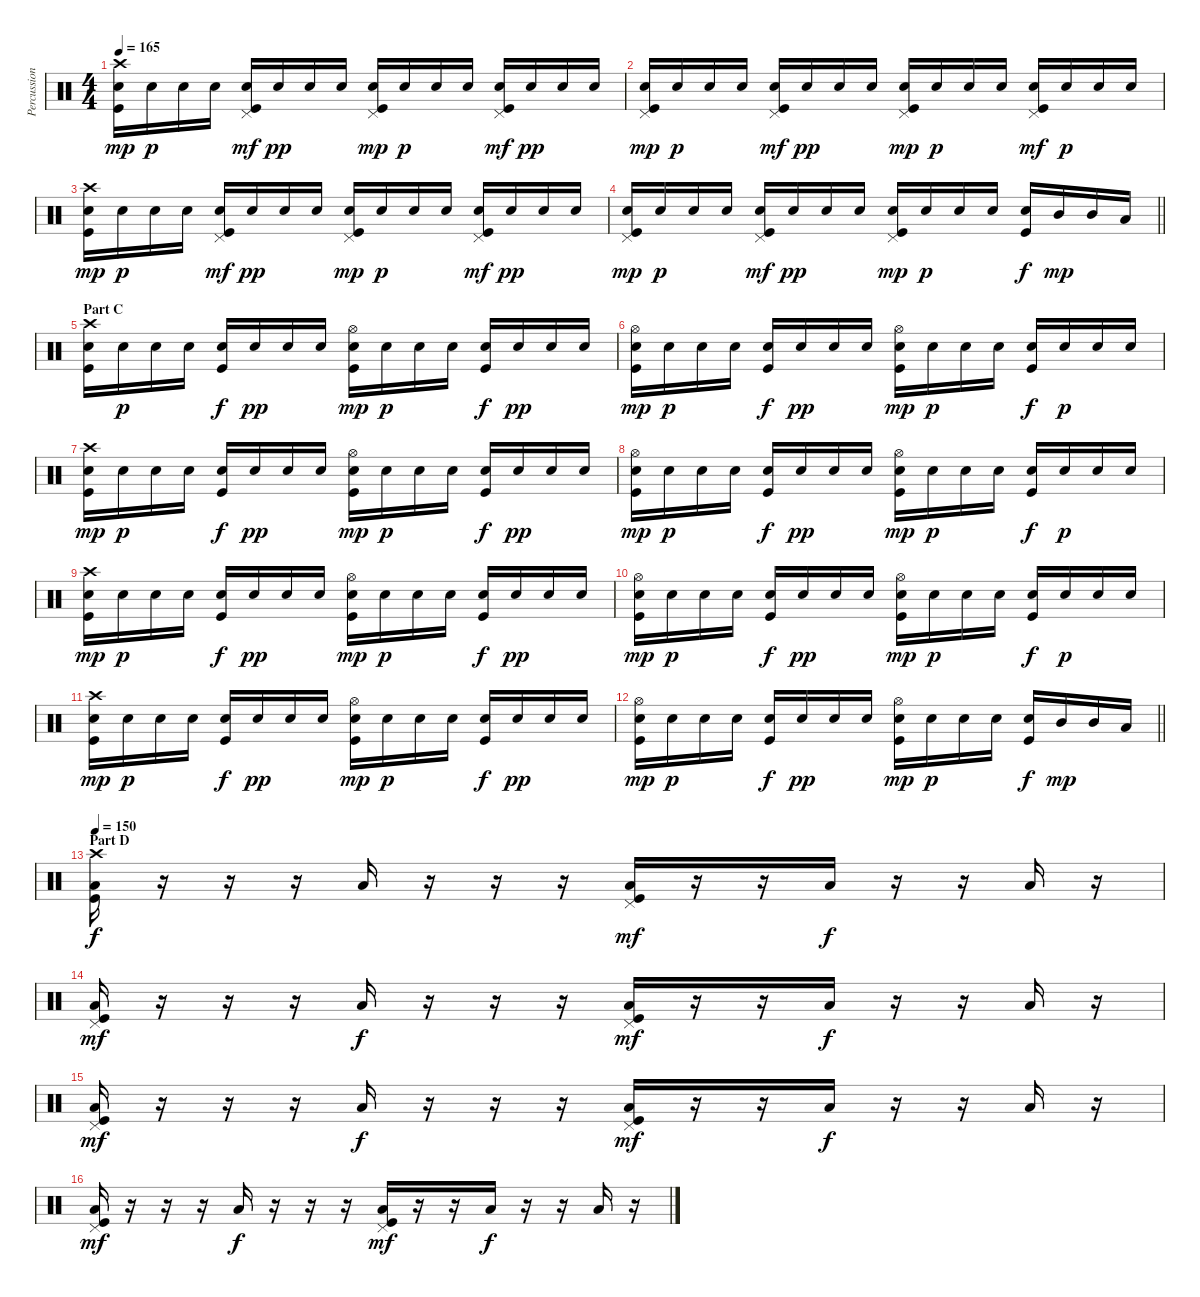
\track ("Percussion" "Percussion") {instrument percussion}
\staff {score}
\articulation defaults
\ts (4 4)
\tempo 165
\clef neutral
\ks c
("Crash high (hit)" "Electric Snare (hit)" "Kick (hit)").16{dy mp} "Electric Snare (hit)".16{dy p} "Electric Snare (hit)".16 "Electric Snare (hit)".16 ("Pedal Hi-Hat (hit)" "Electric Snare (hit)" "Kick (hit)").16{dy mf} "Electric Snare (hit)".16{dy pp} "Electric Snare (hit)".16 "Electric Snare (hit)".16 ("Pedal Hi-Hat (hit)" "Electric Snare (hit)" "Kick (hit)").16{dy mp} "Electric Snare (hit)".16{dy p} "Electric Snare (hit)".16 "Electric Snare (hit)".16 ("Pedal Hi-Hat (hit)" "Electric Snare (hit)" "Kick (hit)").16{dy mf} "Electric Snare (hit)".16{dy pp} "Electric Snare (hit)".16 "Electric Snare (hit)".16 |
("Pedal Hi-Hat (hit)" "Electric Snare (hit)" "Kick (hit)").16{dy mp} "Electric Snare (hit)".16{dy p} "Electric Snare (hit)".16 "Electric Snare (hit)".16 ("Pedal Hi-Hat (hit)" "Electric Snare (hit)" "Kick (hit)").16{dy mf} "Electric Snare (hit)".16{dy pp} "Electric Snare (hit)".16 "Electric Snare (hit)".16 ("Pedal Hi-Hat (hit)" "Electric Snare (hit)" "Kick (hit)").16{dy mp} "Electric Snare (hit)".16{dy p} "Electric Snare (hit)".16 "Electric Snare (hit)".16 ("Pedal Hi-Hat (hit)" "Electric Snare (hit)" "Kick (hit)").16{dy mf} "Electric Snare (hit)".16{dy p} "Electric Snare (hit)".16 "Electric Snare (hit)".16 |
("Crash high (hit)" "Electric Snare (hit)" "Kick (hit)").16{dy mp} "Electric Snare (hit)".16{dy p} "Electric Snare (hit)".16 "Electric Snare (hit)".16 ("Pedal Hi-Hat (hit)" "Electric Snare (hit)" "Kick (hit)").16{dy mf} "Electric Snare (hit)".16{dy pp} "Electric Snare (hit)".16 "Electric Snare (hit)".16 ("Pedal Hi-Hat (hit)" "Electric Snare (hit)" "Kick (hit)").16{dy mp} "Electric Snare (hit)".16{dy p} "Electric Snare (hit)".16 "Electric Snare (hit)".16 ("Pedal Hi-Hat (hit)" "Electric Snare (hit)" "Kick (hit)").16{dy mf} "Electric Snare (hit)".16{dy pp} "Electric Snare (hit)".16 "Electric Snare (hit)".16 |
\barLineRight lightlight
("Pedal Hi-Hat (hit)" "Electric Snare (hit)" "Kick (hit)").16{dy mp} "Electric Snare (hit)".16{dy p} "Electric Snare (hit)".16 "Electric Snare (hit)".16 ("Pedal Hi-Hat (hit)" "Electric Snare (hit)" "Kick (hit)").16{dy mf} "Electric Snare (hit)".16{dy pp} "Electric Snare (hit)".16 "Electric Snare (hit)".16 ("Pedal Hi-Hat (hit)" "Electric Snare (hit)" "Kick (hit)").16{dy mp} "Electric Snare (hit)".16{dy p} "Electric Snare (hit)".16 "Electric Snare (hit)".16 ("Electric Snare (hit)" "Kick (hit)").16{dy f} "Mid Tom (hit)".16{dy mp} "Mid Tom (hit)".16 "Low Tom (hit)".16 |
\section ("" "Part C")
("Crash high (hit)" "Electric Snare (hit)" "Kick (hit)").16 "Electric Snare (hit)".16{dy p} "Electric Snare (hit)".16 "Electric Snare (hit)".16 ("Electric Snare (hit)" "Kick (hit)").16{dy f} "Electric Snare (hit)".16{dy pp} "Electric Snare (hit)".16 "Electric Snare (hit)".16 ("Hi-Hat (open)" "Electric Snare (hit)" "Kick (hit)").16{dy mp} "Electric Snare (hit)".16{dy p} "Electric Snare (hit)".16 "Electric Snare (hit)".16 ("Electric Snare (hit)" "Kick (hit)").16{dy f} "Electric Snare (hit)".16{dy pp} "Electric Snare (hit)".16 "Electric Snare (hit)".16 |
("Hi-Hat (open)" "Electric Snare (hit)" "Kick (hit)").16{dy mp} "Electric Snare (hit)".16{dy p} "Electric Snare (hit)".16 "Electric Snare (hit)".16 ("Electric Snare (hit)" "Kick (hit)").16{dy f} "Electric Snare (hit)".16{dy pp} "Electric Snare (hit)".16 "Electric Snare (hit)".16 ("Hi-Hat (open)" "Electric Snare (hit)" "Kick (hit)").16{dy mp} "Electric Snare (hit)".16{dy p} "Electric Snare (hit)".16 "Electric Snare (hit)".16 ("Electric Snare (hit)" "Kick (hit)").16{dy f} "Electric Snare (hit)".16{dy p} "Electric Snare (hit)".16 "Electric Snare (hit)".16 |
("Crash high (hit)" "Electric Snare (hit)" "Kick (hit)").16{dy mp} "Electric Snare (hit)".16{dy p} "Electric Snare (hit)".16 "Electric Snare (hit)".16 ("Electric Snare (hit)" "Kick (hit)").16{dy f} "Electric Snare (hit)".16{dy pp} "Electric Snare (hit)".16 "Electric Snare (hit)".16 ("Hi-Hat (open)" "Electric Snare (hit)" "Kick (hit)").16{dy mp} "Electric Snare (hit)".16{dy p} "Electric Snare (hit)".16 "Electric Snare (hit)".16 ("Electric Snare (hit)" "Kick (hit)").16{dy f} "Electric Snare (hit)".16{dy pp} "Electric Snare (hit)".16 "Electric Snare (hit)".16 |
("Hi-Hat (open)" "Electric Snare (hit)" "Kick (hit)").16{dy mp} "Electric Snare (hit)".16{dy p} "Electric Snare (hit)".16 "Electric Snare (hit)".16 ("Electric Snare (hit)" "Kick (hit)").16{dy f} "Electric Snare (hit)".16{dy pp} "Electric Snare (hit)".16 "Electric Snare (hit)".16 ("Hi-Hat (open)" "Electric Snare (hit)" "Kick (hit)").16{dy mp} "Electric Snare (hit)".16{dy p} "Electric Snare (hit)".16 "Electric Snare (hit)".16 ("Electric Snare (hit)" "Kick (hit)").16{dy f} "Electric Snare (hit)".16{dy p} "Electric Snare (hit)".16 "Electric Snare (hit)".16 |
("Crash high (hit)" "Electric Snare (hit)" "Kick (hit)").16{dy mp} "Electric Snare (hit)".16{dy p} "Electric Snare (hit)".16 "Electric Snare (hit)".16 ("Electric Snare (hit)" "Kick (hit)").16{dy f} "Electric Snare (hit)".16{dy pp} "Electric Snare (hit)".16 "Electric Snare (hit)".16 ("Hi-Hat (open)" "Electric Snare (hit)" "Kick (hit)").16{dy mp} "Electric Snare (hit)".16{dy p} "Electric Snare (hit)".16 "Electric Snare (hit)".16 ("Electric Snare (hit)" "Kick (hit)").16{dy f} "Electric Snare (hit)".16{dy pp} "Electric Snare (hit)".16 "Electric Snare (hit)".16 |
("Hi-Hat (open)" "Electric Snare (hit)" "Kick (hit)").16{dy mp} "Electric Snare (hit)".16{dy p} "Electric Snare (hit)".16 "Electric Snare (hit)".16 ("Electric Snare (hit)" "Kick (hit)").16{dy f} "Electric Snare (hit)".16{dy pp} "Electric Snare (hit)".16 "Electric Snare (hit)".16 ("Hi-Hat (open)" "Electric Snare (hit)" "Kick (hit)").16{dy mp} "Electric Snare (hit)".16{dy p} "Electric Snare (hit)".16 "Electric Snare (hit)".16 ("Electric Snare (hit)" "Kick (hit)").16{dy f} "Electric Snare (hit)".16{dy p} "Electric Snare (hit)".16 "Electric Snare (hit)".16 |
("Crash high (hit)" "Electric Snare (hit)" "Kick (hit)").16{dy mp} "Electric Snare (hit)".16{dy p} "Electric Snare (hit)".16 "Electric Snare (hit)".16 ("Electric Snare (hit)" "Kick (hit)").16{dy f} "Electric Snare (hit)".16{dy pp} "Electric Snare (hit)".16 "Electric Snare (hit)".16 ("Hi-Hat (open)" "Electric Snare (hit)" "Kick (hit)").16{dy mp} "Electric Snare (hit)".16{dy p} "Electric Snare (hit)".16 "Electric Snare (hit)".16 ("Electric Snare (hit)" "Kick (hit)").16{dy f} "Electric Snare (hit)".16{dy pp} "Electric Snare (hit)".16 "Electric Snare (hit)".16 |
\barLineRight lightlight
("Hi-Hat (open)" "Electric Snare (hit)" "Kick (hit)").16{dy mp} "Electric Snare (hit)".16{dy p} "Electric Snare (hit)".16 "Electric Snare (hit)".16 ("Electric Snare (hit)" "Kick (hit)").16{dy f} "Electric Snare (hit)".16{dy pp} "Electric Snare (hit)".16 "Electric Snare (hit)".16 ("Hi-Hat (open)" "Electric Snare (hit)" "Kick (hit)").16{dy mp} "Electric Snare (hit)".16{dy p} "Electric Snare (hit)".16 "Electric Snare (hit)".16 ("Electric Snare (hit)" "Kick (hit)").16{dy f} "Mid Tom (hit)".16{dy mp} "Mid Tom (hit)".16 "Low Tom (hit)".16 |
\section ("" "Part D")
\tempo 150
("Crash high (hit)" "Low Floor Tom (hit)" "Kick (hit)").16{dy f} r.16 r.16 r.16 "Low Floor Tom (hit)".16 r.16 r.16 r.16 ("Pedal Hi-Hat (hit)" "Low Floor Tom (hit)" "Kick (hit)").16{dy mf} r.16 r.16 "Low Floor Tom (hit)".16{dy f} r.16 r.16 "Low Floor Tom (hit)".16 r.16 |
("Pedal Hi-Hat (hit)" "Low Floor Tom (hit)" "Kick (hit)").16{dy mf} r.16 r.16 r.16 "Low Floor Tom (hit)".16{dy f} r.16 r.16 r.16 ("Pedal Hi-Hat (hit)" "Low Floor Tom (hit)" "Kick (hit)").16{dy mf} r.16 r.16 "Low Floor Tom (hit)".16{dy f} r.16 r.16 "Low Floor Tom (hit)".16 r.16 |
("Pedal Hi-Hat (hit)" "Low Floor Tom (hit)" "Kick (hit)").16{dy mf} r.16 r.16 r.16 "Low Floor Tom (hit)".16{dy f} r.16 r.16 r.16 ("Pedal Hi-Hat (hit)" "Low Floor Tom (hit)" "Kick (hit)").16{dy mf} r.16 r.16 "Low Floor Tom (hit)".16{dy f} r.16 r.16 "Low Floor Tom (hit)".16 r.16 |
("Pedal Hi-Hat (hit)" "Low Floor Tom (hit)" "Kick (hit)").16{dy mf} r.16 r.16 r.16 "Low Floor Tom (hit)".16{dy f} r.16 r.16 r.16 ("Pedal Hi-Hat (hit)" "Low Floor Tom (hit)" "Kick (hit)").16{dy mf} r.16 r.16 "Low Floor Tom (hit)".16{dy f} r.16 r.16 "Low Floor Tom (hit)".16 r.16
